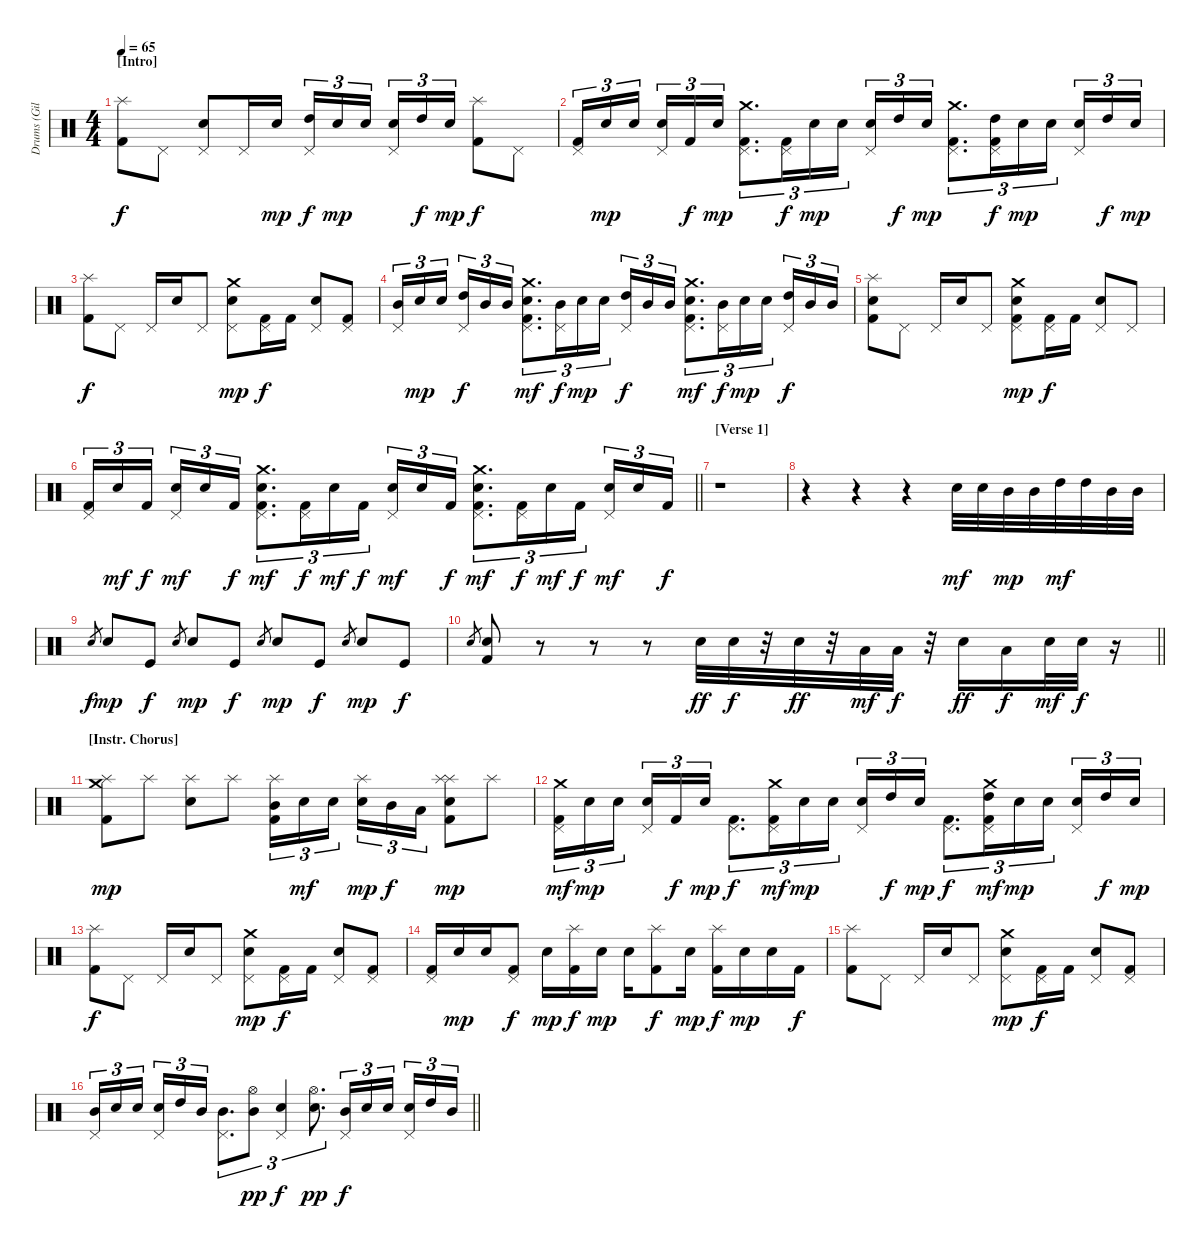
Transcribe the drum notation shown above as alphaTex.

\track ("Drums (Giles)" "Drums (Gil") {instrument percussion}
\staff {score}
\articulation defaults
\ts (4 4)
\section ("" "[Intro]")
\tempo 65
\clef neutral
\ks c
("Splash (hit)" "Kick (hit) 2").8{dy f} "Pedal Hi-Hat (hit)".8 ("Pedal Hi-Hat (hit)" "Electric Snare (hit)").8 "Pedal Hi-Hat (hit)".16 "Electric Snare (hit)".16{dy mp} ("Pedal Hi-Hat (hit)" "High Tom (hit)").16{tu (3 2) dy f} "Electric Snare (hit)".16{tu (3 2) dy mp} "Electric Snare (hit)".16{tu (3 2) beam splitsecondary} ("Pedal Hi-Hat (hit)" "Electric Snare (hit)").16{tu (3 2)} "High Tom (hit)".16{tu (3 2) dy f} "Electric Snare (hit)".16{tu (3 2) dy mp} ("Splash (hit)" "Kick (hit) 2").8{dy f} "Pedal Hi-Hat (hit)".8 |
("Pedal Hi-Hat (hit)" "Kick (hit) 2").16{tu (3 2)} "Electric Snare (hit)".16{tu (3 2) dy mp} "Electric Snare (hit)".16{tu (3 2) beam splitsecondary} ("Pedal Hi-Hat (hit)" "Electric Snare (hit)").16{tu (3 2)} "Kick (hit) 2".16{tu (3 2) dy f} "Electric Snare (hit)".16{tu (3 2) dy mp} ("Crash medium (hit)" "Pedal Hi-Hat (hit)" "Kick (hit) 2").8{d tu (3 2)} ("Pedal Hi-Hat (hit)" "Kick (hit) 2").16{tu (3 2) dy f} "Electric Snare (hit)".16{tu (3 2) dy mp} "Electric Snare (hit)".16{tu (3 2)} ("Pedal Hi-Hat (hit)" "Electric Snare (hit)").16{tu (3 2)} "High Tom (hit)".16{tu (3 2) dy f} "Electric Snare (hit)".16{tu (3 2) dy mp} ("Crash medium (hit)" "Pedal Hi-Hat (hit)" "Kick (hit) 2").8{d tu (3 2)} ("Pedal Hi-Hat (hit)" "High Tom (hit)" "Kick (hit) 2").16{tu (3 2) dy f} "Electric Snare (hit)".16{tu (3 2) dy mp} "Electric Snare (hit)".16{tu (3 2) beam splitsecondary} ("Pedal Hi-Hat (hit)" "Electric Snare (hit)").16{tu (3 2)} "High Tom (hit)".16{tu (3 2) dy f} "Electric Snare (hit)".16{tu (3 2) dy mp} |
("Splash (hit)" "Kick (hit) 2").8{dy f} "Pedal Hi-Hat (hit)".8 "Pedal Hi-Hat (hit)".16 "Electric Snare (hit)".16 "Pedal Hi-Hat (hit)".8 ("Crash medium (hit)" "Pedal Hi-Hat (hit)" "Electric Snare (hit)").8{dy mp} ("Pedal Hi-Hat (hit)" "Kick (hit) 2").16{dy f} "Kick (hit) 2".16 ("Pedal Hi-Hat (hit)" "Electric Snare (hit)").8 ("Pedal Hi-Hat (hit)" "Kick (hit) 2").8 |
("Pedal Hi-Hat (hit)" "Mid Tom (hit)").16{tu (3 2)} "Electric Snare (hit)".16{tu (3 2) dy mp} "Electric Snare (hit)".16{tu (3 2) beam splitsecondary} ("Pedal Hi-Hat (hit)" "High Tom (hit)").16{tu (3 2) dy f} "Mid Tom (hit)".16{tu (3 2)} "Mid Tom (hit)".16{tu (3 2)} ("Crash medium (hit)" "Pedal Hi-Hat (hit)" "Electric Snare (hit)" "Kick (hit) 2").8{d tu (3 2) dy mf} ("Pedal Hi-Hat (hit)" "Mid Tom (hit)").16{tu (3 2) dy f} "Electric Snare (hit)".16{tu (3 2) dy mp} "Electric Snare (hit)".16{tu (3 2)} ("Pedal Hi-Hat (hit)" "High Tom (hit)").16{tu (3 2) dy f} "Mid Tom (hit)".16{tu (3 2)} "Mid Tom (hit)".16{tu (3 2)} ("Crash medium (hit)" "Pedal Hi-Hat (hit)" "Electric Snare (hit)" "Kick (hit) 2").8{d tu (3 2) dy mf} ("Pedal Hi-Hat (hit)" "Mid Tom (hit)").16{tu (3 2) dy f} "Electric Snare (hit)".16{tu (3 2) dy mp} "Electric Snare (hit)".16{tu (3 2) beam splitsecondary} ("Pedal Hi-Hat (hit)" "High Tom (hit)").16{tu (3 2) dy f} "Mid Tom (hit)".16{tu (3 2)} "Mid Tom (hit)".16{tu (3 2)} |
("Splash (hit)" "Electric Snare (hit)" "Kick (hit) 2").8 "Pedal Hi-Hat (hit)".8 "Pedal Hi-Hat (hit)".16 "Electric Snare (hit)".16 "Pedal Hi-Hat (hit)".8 ("Crash medium (hit)" "Pedal Hi-Hat (hit)" "Electric Snare (hit)" "Kick (hit) 2").8{dy mp} ("Pedal Hi-Hat (hit)" "Kick (hit) 2").16{dy f} "Kick (hit) 2".16 ("Pedal Hi-Hat (hit)" "Electric Snare (hit)").8 "Pedal Hi-Hat (hit)".8 |
\barLineRight lightlight
("Pedal Hi-Hat (hit)" "Kick (hit) 2").16{tu (3 2)} "Electric Snare (hit)".16{tu (3 2) dy mf} "Kick (hit) 2".16{tu (3 2) dy f beam splitsecondary} ("Pedal Hi-Hat (hit)" "Electric Snare (hit)").16{tu (3 2) dy mf} "Electric Snare (hit)".16{tu (3 2)} "Kick (hit) 2".16{tu (3 2) dy f} ("Crash medium (hit)" "Pedal Hi-Hat (hit)" "Electric Snare (hit)" "Kick (hit) 2").8{d tu (3 2) dy mf} ("Pedal Hi-Hat (hit)" "Kick (hit) 2").16{tu (3 2) dy f} "Electric Snare (hit)".16{tu (3 2) dy mf} "Kick (hit) 2".16{tu (3 2) dy f} ("Pedal Hi-Hat (hit)" "Electric Snare (hit)").16{tu (3 2) dy mf} "Electric Snare (hit)".16{tu (3 2)} "Kick (hit) 2".16{tu (3 2) dy f} ("Crash medium (hit)" "Pedal Hi-Hat (hit)" "Electric Snare (hit)" "Kick (hit) 2").8{d tu (3 2) dy mf} ("Pedal Hi-Hat (hit)" "Kick (hit) 2").16{tu (3 2) dy f} "Electric Snare (hit)".16{tu (3 2) dy mf} "Kick (hit) 2".16{tu (3 2) dy f beam splitsecondary} ("Pedal Hi-Hat (hit)" "Electric Snare (hit)").16{tu (3 2) dy mf} "Electric Snare (hit)".16{tu (3 2)} "Kick (hit) 2".16{tu (3 2) dy f} |
\section ("" "[Verse 1]")
r.1 |
r.4 r.4 r.4 "Electric Snare (hit)".32{dy mf} "Electric Snare (hit)".32 "Mid Tom (hit)".32{dy mp} "Mid Tom (hit)".32 "High Tom (hit)".32{dy mf} "High Tom (hit)".32 "Mid Tom (hit)".32 "Mid Tom (hit)".32 |
"Electric Snare (hit)".8{gr dy f} "Electric Snare (hit)".8{dy mp} "Kick (hit)".8{dy f} "Electric Snare (hit)".8{gr} "Electric Snare (hit)".8{dy mp} "Kick (hit)".8{dy f} "Electric Snare (hit)".8{gr} "Electric Snare (hit)".8{dy mp} "Kick (hit)".8{dy f} "Electric Snare (hit)".8{gr} "Electric Snare (hit)".8{dy mp} "Kick (hit)".8{dy f} |
\barLineRight lightlight "Electric Snare (hit)".8{gr}
("Electric Snare (hit)" "Kick (hit) 2").8 r.8 r.8 r.8 "Electric Snare (hit)".32{dy ff} "Electric Snare (hit)".32{dy f} r.32 "Electric Snare (hit)".32{dy ff} r.32 "Low Tom (hit)".32{dy mf} "Low Tom (hit)".32{dy f} r.32 "Electric Snare (hit)".16{dy ff} "Low Tom (hit)".16{dy f} "Electric Snare (hit)".32{dy mf} "Electric Snare (hit)".32{dy f} r.16 |
\section ("" "[Instr. Chorus]")
("Crash medium (hit)" "Splash (hit)" "Kick (hit) 2").8{dy mp} "Splash (hit)".8 ("Splash (hit)" "Electric Snare (hit)").8 "Splash (hit)".8 ("Splash (hit)" "Mid Tom (hit)" "Kick (hit) 2").16{tu (3 2)} "Electric Snare (hit)".16{tu (3 2) dy mf} "Electric Snare (hit)".16{tu (3 2) beam splitsecondary} ("Splash (hit)" "Electric Snare (hit)").16{tu (3 2) dy mp} "Mid Tom (hit)".16{tu (3 2) dy f} "Low Tom (hit)".16{tu (3 2)} ("Splash (hit)" "Splash (hit)" "Electric Snare (hit)" "Kick (hit) 2").8{dy mp} "Splash (hit)".8 |
("Crash medium (hit)" "Pedal Hi-Hat (hit)" "Kick (hit) 2").16{tu (3 2) dy mf} "Electric Snare (hit)".16{tu (3 2) dy mp} "Electric Snare (hit)".16{tu (3 2) beam splitsecondary} ("Pedal Hi-Hat (hit)" "Electric Snare (hit)").16{tu (3 2)} "Kick (hit) 2".16{tu (3 2) dy f} "Electric Snare (hit)".16{tu (3 2) dy mp} ("Pedal Hi-Hat (hit)" "Kick (hit) 2").8{d tu (3 2) dy f} ("Crash medium (hit)" "Pedal Hi-Hat (hit)" "Kick (hit) 2").16{tu (3 2) dy mf} "Electric Snare (hit)".16{tu (3 2) dy mp} "Electric Snare (hit)".16{tu (3 2)} ("Pedal Hi-Hat (hit)" "Electric Snare (hit)").16{tu (3 2)} "High Tom (hit)".16{tu (3 2) dy f} "Electric Snare (hit)".16{tu (3 2) dy mp} ("Pedal Hi-Hat (hit)" "Kick (hit) 2").8{d tu (3 2) dy f} ("Crash medium (hit)" "Pedal Hi-Hat (hit)" "High Tom (hit)" "Kick (hit) 2").16{tu (3 2) dy mf} "Electric Snare (hit)".16{tu (3 2) dy mp} "Electric Snare (hit)".16{tu (3 2) beam splitsecondary} ("Pedal Hi-Hat (hit)" "Electric Snare (hit)").16{tu (3 2)} "High Tom (hit)".16{tu (3 2) dy f} "Electric Snare (hit)".16{tu (3 2) dy mp} |
("Splash (hit)" "Kick (hit) 2").8{dy f} "Pedal Hi-Hat (hit)".8 "Pedal Hi-Hat (hit)".16 "Electric Snare (hit)".16 "Pedal Hi-Hat (hit)".8 ("Crash medium (hit)" "Pedal Hi-Hat (hit)" "Electric Snare (hit)").8{dy mp} ("Pedal Hi-Hat (hit)" "Kick (hit) 2").16{dy f} "Kick (hit) 2".16 ("Pedal Hi-Hat (hit)" "Electric Snare (hit)").8 ("Pedal Hi-Hat (hit)" "Kick (hit) 2").8 |
("Pedal Hi-Hat (hit)" "Kick (hit) 2").16 "Electric Snare (hit)".16{dy mp} "Electric Snare (hit)".16 ("Pedal Hi-Hat (hit)" "Kick (hit) 2").8{dy f} "Electric Snare (hit)".16{dy mp} ("Splash (hit)" "Kick (hit) 2").16{dy f} "Electric Snare (hit)".16{dy mp} "Electric Snare (hit)".16 ("Splash (hit)" "Kick (hit) 2").8{dy f} "Electric Snare (hit)".16{dy mp} ("Splash (hit)" "Kick (hit) 2").16{dy f} "Electric Snare (hit)".16{dy mp} "Electric Snare (hit)".16 "Kick (hit) 2".16{dy f} |
("Splash (hit)" "Kick (hit) 2").8 "Pedal Hi-Hat (hit)".8 "Pedal Hi-Hat (hit)".16 "Electric Snare (hit)".16 "Pedal Hi-Hat (hit)".8 ("Crash medium (hit)" "Pedal Hi-Hat (hit)" "Electric Snare (hit)").8{dy mp} ("Pedal Hi-Hat (hit)" "Kick (hit) 2").16{dy f} "Kick (hit) 2".16 ("Pedal Hi-Hat (hit)" "Electric Snare (hit)").8 ("Pedal Hi-Hat (hit)" "Kick (hit) 2").8 |
\barLineRight lightlight
("Pedal Hi-Hat (hit)" "Mid Tom (hit)").16{tu (3 2)} "Electric Snare (hit)".16{tu (3 2)} "Electric Snare (hit)".16{tu (3 2) beam splitsecondary} ("Pedal Hi-Hat (hit)" "Electric Snare (hit)").16{tu (3 2)} "High Tom (hit)".16{tu (3 2)} "Mid Tom (hit)".16{tu (3 2)} ("Pedal Hi-Hat (hit)" "Mid Tom (hit)").8{d tu (3 2)} ("Hi-Hat (open)" "Mid Tom (hit)").8{tu (3 2) dy pp} ("Pedal Hi-Hat (hit)" "Electric Snare (hit)").4{tu (3 2) dy f} ("Hi-Hat (open)" "Electric Snare (hit)").8{d tu (3 2) dy pp} ("Pedal Hi-Hat (hit)" "Mid Tom (hit)").16{tu (3 2) dy f} "Electric Snare (hit)".16{tu (3 2)} "Electric Snare (hit)".16{tu (3 2) beam splitsecondary} ("Pedal Hi-Hat (hit)" "Electric Snare (hit)").16{tu (3 2)} "High Tom (hit)".16{tu (3 2)} "Mid Tom (hit)".16{tu (3 2)}
